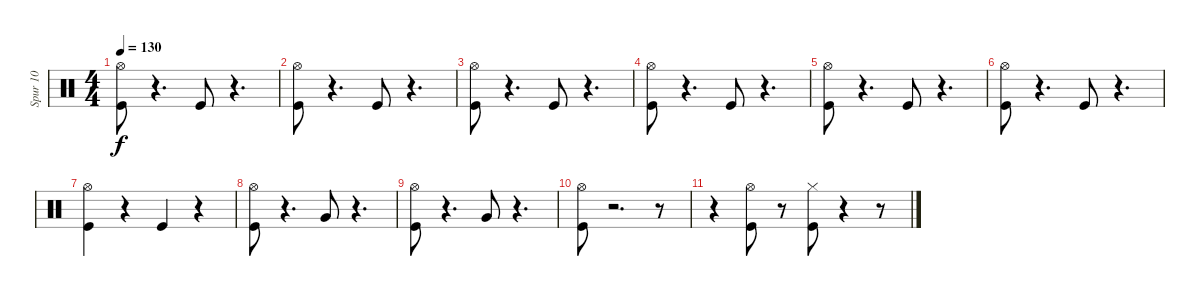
\track ("Spur 10" "Spur 10") {instrument percussion}
\staff {score}
\articulation defaults
\ts (4 4)
\tempo 130
\clef neutral
\ks c
("Kick (hit)" "Hi-Hat (open)").8{dy f} r.4{d} "Kick (hit)".8 r.4{d} |
("Hi-Hat (open)" "Kick (hit)").8 r.4{d} "Kick (hit)".8 r.4{d} |
("Kick (hit)" "Hi-Hat (open)").8 r.4{d} "Kick (hit)".8 r.4{d} |
("Hi-Hat (open)" "Kick (hit)").8 r.4{d} "Kick (hit)".8 r.4{d} |
("Kick (hit)" "Hi-Hat (open)").8 r.4{d} "Kick (hit)".8 r.4{d} |
("Hi-Hat (open)" "Kick (hit)").8 r.4{d} "Kick (hit)".8 r.4{d} |
("Hi-Hat (open)" "Kick (hit)").4 r.4 "Kick (hit)".4 r.4 |
("Kick (hit)" "Hi-Hat (open)").8 r.4{d} "Very Low Tom (hit)".8 r.4{d} |
("Hi-Hat (open)" "Kick (hit)").8 r.4{d} "Very Low Tom (hit)".8 r.4{d} |
("Hi-Hat (open)" "Kick (hit)").8 r.2{d} r.8 |
r.4 ("Hi-Hat (open)" "Kick (hit)").8 r.8 ("Hi-Hat (closed)" "Kick (hit)").8 r.4 r.8
